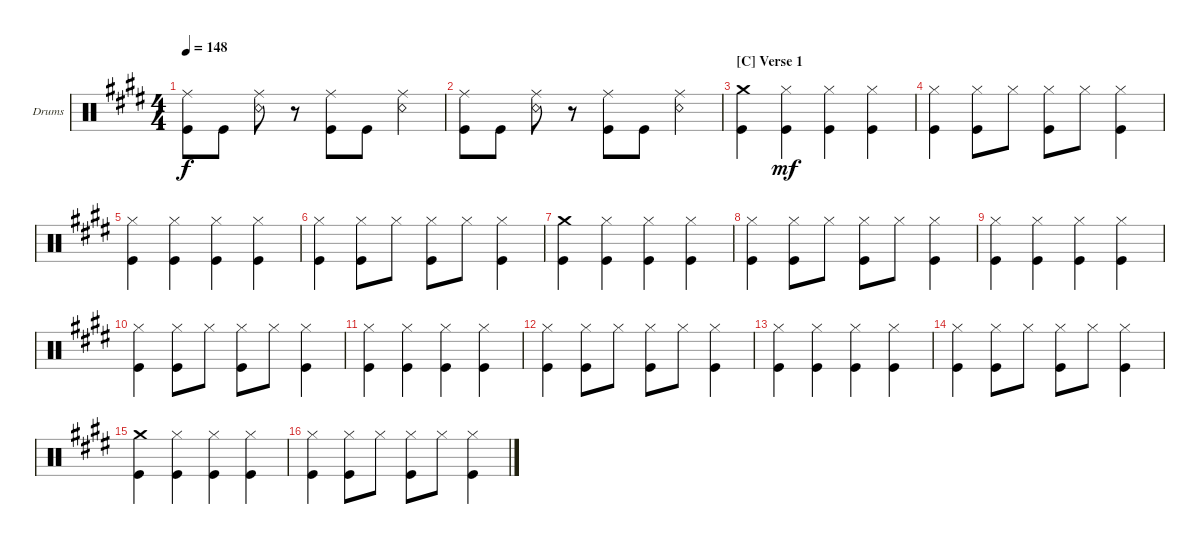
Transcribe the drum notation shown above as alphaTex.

\bracketExtendMode groupsimilarinstruments
\firstSystemTrackNameOrientation horizontal
\otherSystemsTrackNameOrientation horizontal
\track ("Drums" "Drums") {instrument percussion}
\staff {score}
\articulation defaults
\ts (4 4)
\tempo 148
\clef neutral
\ks e
("Kick (hit)" "Ride (middle)").8{dy f} "Kick (hit)".8 ("Snare (rim shot)" "Ride (middle)").8 r.8 ("Kick (hit)" "Ride (middle)").8 "Kick (hit)".8 ("Snare (rim shot)" "Ride (middle)").4 |
("Kick (hit)" "Ride (middle)").8 "Kick (hit)".8 ("Snare (rim shot)" "Ride (middle)").8 r.8 ("Kick (hit)" "Ride (middle)").8 "Kick (hit)".8 ("Snare (rim shot)" "Ride (middle)").4 |
\section ("C" "Verse 1")
("Kick (hit)" "Crash medium (hit)").4 ("Kick (hit)" "Hi-Hat (closed)").4{dy mf} ("Kick (hit)" "Hi-Hat (closed)").4 ("Kick (hit)" "Hi-Hat (closed)").4 |
("Kick (hit)" "Hi-Hat (closed)").4 ("Kick (hit)" "Hi-Hat (closed)").8 "Hi-Hat (closed)".8 ("Kick (hit)" "Hi-Hat (closed)").8 "Hi-Hat (closed)".8 ("Kick (hit)" "Hi-Hat (closed)").4 |
("Kick (hit)" "Hi-Hat (closed)").4 ("Kick (hit)" "Hi-Hat (closed)").4 ("Kick (hit)" "Hi-Hat (closed)").4 ("Kick (hit)" "Hi-Hat (closed)").4 |
("Kick (hit)" "Hi-Hat (closed)").4 ("Kick (hit)" "Hi-Hat (closed)").8 "Hi-Hat (closed)".8 ("Kick (hit)" "Hi-Hat (closed)").8 "Hi-Hat (closed)".8 ("Kick (hit)" "Hi-Hat (closed)").4 |
("Kick (hit)" "Crash medium (hit)").4 ("Kick (hit)" "Hi-Hat (closed)").4 ("Kick (hit)" "Hi-Hat (closed)").4 ("Kick (hit)" "Hi-Hat (closed)").4 |
("Kick (hit)" "Hi-Hat (closed)").4 ("Kick (hit)" "Hi-Hat (closed)").8 "Hi-Hat (closed)".8 ("Kick (hit)" "Hi-Hat (closed)").8 "Hi-Hat (closed)".8 ("Kick (hit)" "Hi-Hat (closed)").4 |
("Kick (hit)" "Hi-Hat (closed)").4 ("Kick (hit)" "Hi-Hat (closed)").4 ("Kick (hit)" "Hi-Hat (closed)").4 ("Kick (hit)" "Hi-Hat (closed)").4 |
("Kick (hit)" "Hi-Hat (closed)").4 ("Kick (hit)" "Hi-Hat (closed)").8 "Hi-Hat (closed)".8 ("Kick (hit)" "Hi-Hat (closed)").8 "Hi-Hat (closed)".8 ("Kick (hit)" "Hi-Hat (closed)").4 |
("Kick (hit)" "Hi-Hat (closed)").4 ("Kick (hit)" "Hi-Hat (closed)").4 ("Kick (hit)" "Hi-Hat (closed)").4 ("Kick (hit)" "Hi-Hat (closed)").4 |
("Kick (hit)" "Hi-Hat (closed)").4 ("Kick (hit)" "Hi-Hat (closed)").8 "Hi-Hat (closed)".8 ("Kick (hit)" "Hi-Hat (closed)").8 "Hi-Hat (closed)".8 ("Kick (hit)" "Hi-Hat (closed)").4 |
("Kick (hit)" "Hi-Hat (closed)").4 ("Kick (hit)" "Hi-Hat (closed)").4 ("Kick (hit)" "Hi-Hat (closed)").4 ("Kick (hit)" "Hi-Hat (closed)").4 |
("Kick (hit)" "Hi-Hat (closed)").4 ("Kick (hit)" "Hi-Hat (closed)").8 "Hi-Hat (closed)".8 ("Kick (hit)" "Hi-Hat (closed)").8 "Hi-Hat (closed)".8 ("Kick (hit)" "Hi-Hat (closed)").4 |
("Kick (hit)" "Crash medium (hit)").4 ("Kick (hit)" "Hi-Hat (closed)").4 ("Kick (hit)" "Hi-Hat (closed)").4 ("Kick (hit)" "Hi-Hat (closed)").4 |
("Kick (hit)" "Hi-Hat (closed)").4 ("Kick (hit)" "Hi-Hat (closed)").8 "Hi-Hat (closed)".8 ("Kick (hit)" "Hi-Hat (closed)").8 "Hi-Hat (closed)".8 ("Kick (hit)" "Hi-Hat (closed)").4
